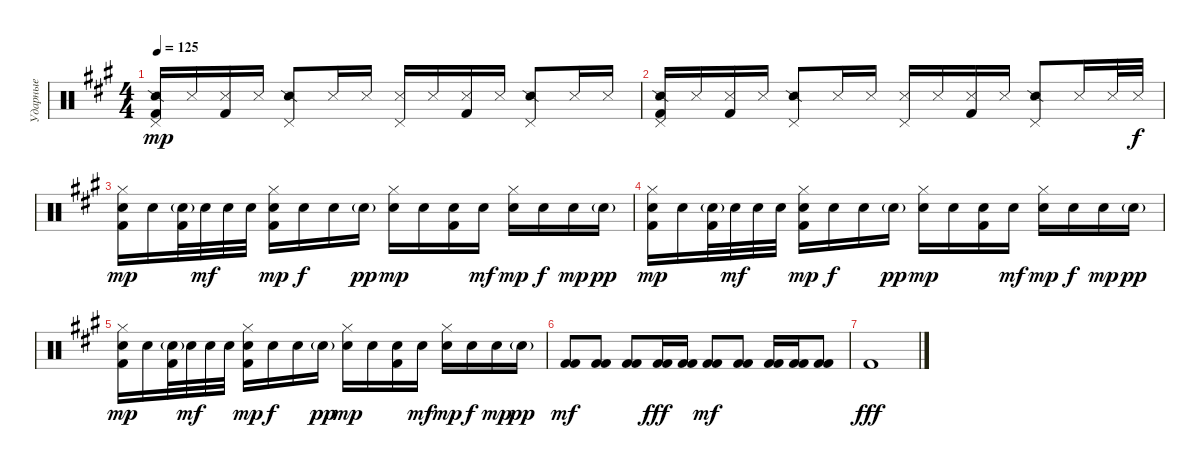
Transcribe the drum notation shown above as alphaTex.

\track ("Ударные" "Ударные") {instrument percussion}
\staff {score}
\articulation defaults
\ts (4 4)
\tempo 125
\clef neutral
\ks a
("Snare (side stick) 2" "Pedal Hi-Hat (hit)" "Kick (hit) 2").16{dy mp} "Metronome (hit)".16 ("Metronome (hit)" "Kick (hit) 2").16 "Metronome (hit)".16 ("Snare (side stick) 2" "Pedal Hi-Hat (hit)").8 "Metronome (hit)".16 "Metronome (hit)".16 ("Metronome (hit)" "Pedal Hi-Hat (hit)").16 "Metronome (hit)".16 ("Metronome (hit)" "Kick (hit) 2").16 "Metronome (hit)".16 ("Snare (side stick) 2" "Pedal Hi-Hat (hit)").8 "Metronome (hit)".16 "Metronome (hit)".16 |
("Snare (side stick) 2" "Pedal Hi-Hat (hit)" "Kick (hit) 2").16 "Metronome (hit)".16 ("Metronome (hit)" "Kick (hit) 2").16 "Metronome (hit)".16 ("Snare (side stick) 2" "Pedal Hi-Hat (hit)").8 "Metronome (hit)".16 "Metronome (hit)".16 ("Metronome (hit)" "Pedal Hi-Hat (hit)").16 "Metronome (hit)".16 ("Metronome (hit)" "Kick (hit) 2").16 "Metronome (hit)".16 ("Snare (side stick) 2" "Pedal Hi-Hat (hit)").8 "Metronome (hit)".16 "Metronome (hit)".32 "Metronome (hit)".32{dy f} |
("Electric Snare (hit)" "Hi-Hat (closed)" "Kick (hit) 2").16{dy mp} "Electric Snare (hit)".16 ("Electric Snare (hit)"{g} "Kick (hit) 2").32 "Electric Snare (hit)".32{dy mf} "Electric Snare (hit)".32 "Electric Snare (hit)".32 ("Electric Snare (hit)" "Hi-Hat (closed)" "Kick (hit) 2").16{dy mp} "Electric Snare (hit)".16{dy f} "Electric Snare (hit)".16 "Electric Snare (hit)"{g}.16{dy pp} ("Electric Snare (hit)" "Hi-Hat (closed)").16{dy mp} "Electric Snare (hit)".16 ("Electric Snare (hit)" "Kick (hit) 2").16 "Electric Snare (hit)".16{dy mf} ("Electric Snare (hit)" "Hi-Hat (closed)").16{dy mp} "Electric Snare (hit)".16{dy f} "Electric Snare (hit)".16{dy mp} "Electric Snare (hit)"{g}.16{dy pp} |
("Electric Snare (hit)" "Hi-Hat (closed)" "Kick (hit) 2").16{dy mp} "Electric Snare (hit)".16 ("Electric Snare (hit)"{g} "Kick (hit) 2").32 "Electric Snare (hit)".32{dy mf} "Electric Snare (hit)".32 "Electric Snare (hit)".32 ("Electric Snare (hit)" "Hi-Hat (closed)" "Kick (hit) 2").16{dy mp} "Electric Snare (hit)".16{dy f} "Electric Snare (hit)".16 "Electric Snare (hit)"{g}.16{dy pp} ("Electric Snare (hit)" "Hi-Hat (closed)").16{dy mp} "Electric Snare (hit)".16 ("Electric Snare (hit)" "Kick (hit) 2").16 "Electric Snare (hit)".16{dy mf} ("Electric Snare (hit)" "Hi-Hat (closed)").16{dy mp} "Electric Snare (hit)".16{dy f} "Electric Snare (hit)".16{dy mp} "Electric Snare (hit)"{g}.16{dy pp} |
("Electric Snare (hit)" "Hi-Hat (closed)" "Kick (hit) 2").16{dy mp} "Electric Snare (hit)".16 ("Electric Snare (hit)"{g} "Kick (hit) 2").32 "Electric Snare (hit)".32{dy mf} "Electric Snare (hit)".32 "Electric Snare (hit)".32 ("Electric Snare (hit)" "Hi-Hat (closed)" "Kick (hit) 2").16{dy mp} "Electric Snare (hit)".16{dy f} "Electric Snare (hit)".16 "Electric Snare (hit)"{g}.16{dy pp} ("Electric Snare (hit)" "Hi-Hat (closed)").16{dy mp} "Electric Snare (hit)".16 ("Electric Snare (hit)" "Kick (hit) 2").16 "Electric Snare (hit)".16{dy mf} ("Electric Snare (hit)" "Hi-Hat (closed)").16{dy mp} "Electric Snare (hit)".16{dy f} "Electric Snare (hit)".16{dy mp} "Electric Snare (hit)"{g}.16{dy pp} |
("Kick (hit) 2" "Kick (hit) 2").8{dy mf} ("Kick (hit) 2" "Kick (hit) 2").8 ("Kick (hit) 2" "Kick (hit) 2").8 ("Kick (hit) 2" "Kick (hit) 2").16{dy fff} ("Kick (hit) 2" "Kick (hit) 2").16 ("Kick (hit) 2" "Kick (hit) 2").8{dy mf} ("Kick (hit) 2" "Kick (hit) 2").8 ("Kick (hit) 2" "Kick (hit) 2").16 ("Kick (hit) 2" "Kick (hit) 2").16 ("Kick (hit) 2" "Kick (hit) 2").8 |
"Kick (hit) 2".1{dy fff}
